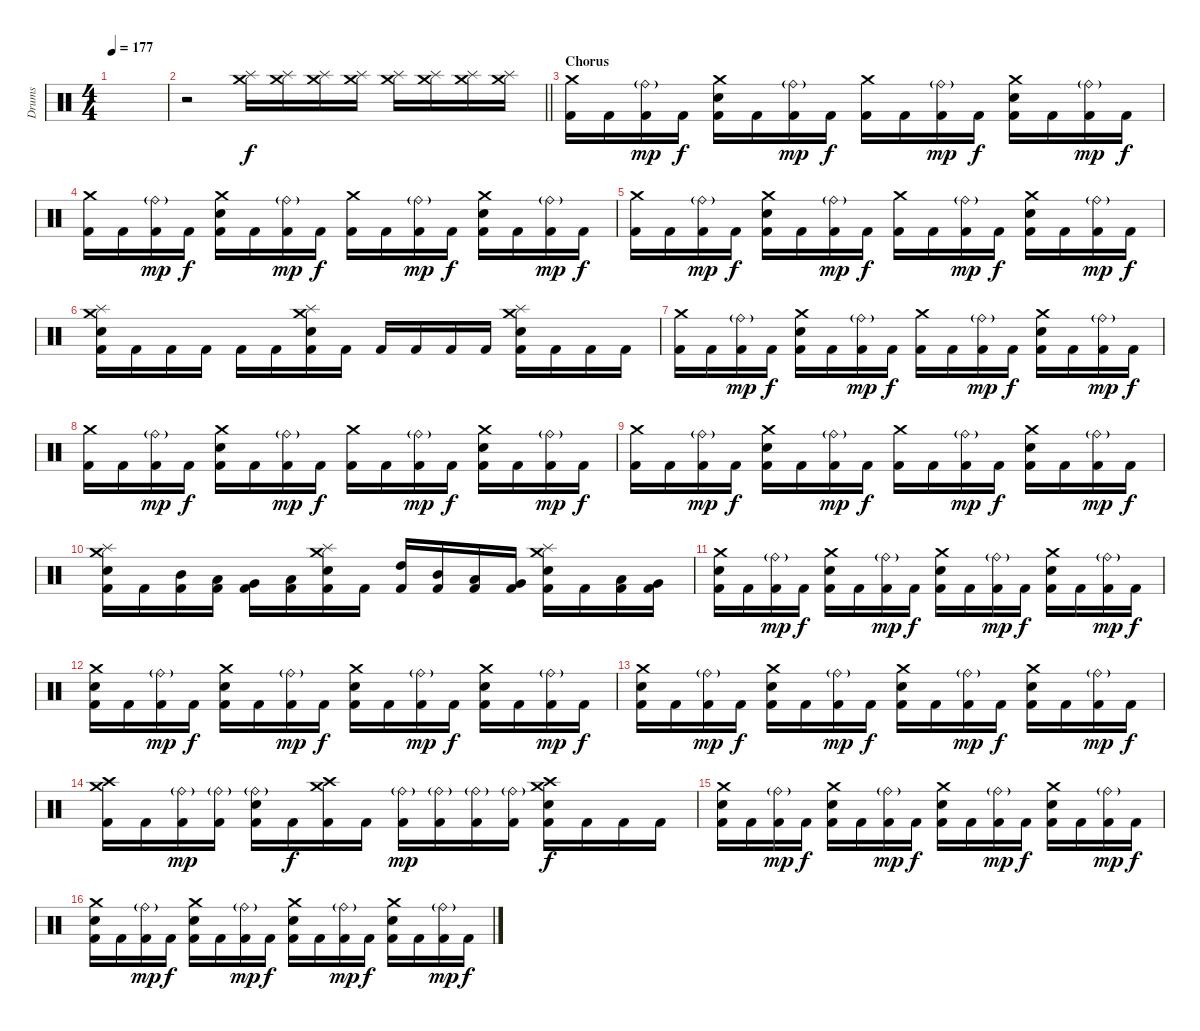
\track ("Drums" "Drums") {instrument percussion}
\staff {score}
\articulation defaults
\ts (4 4)
\tempo 177
\clef neutral
\ks c
|
\barLineRight lightlight
r.2{volume 0} ("Splash (hit)" "Crash medium (hit)").16{volume 2} ("Splash (hit)" "Crash medium (hit)").16{volume 4} ("Splash (hit)" "Crash medium (hit)").16{volume 6} ("Splash (hit)" "Crash medium (hit)").16{volume 8} ("Splash (hit)" "Crash medium (hit)").16{volume 10} ("Splash (hit)" "Crash medium (hit)").16{volume 12} ("Splash (hit)" "Crash medium (hit)").16{volume 14} ("Splash (hit)" "Crash medium (hit)").16{volume 16} |
\section ("" "Chorus")
("Kick (hit) 2" "Crash medium (hit)").16 "Kick (hit) 2".16 ("Kick (hit) 2" "Ride (bell)"{g}).16{dy mp} "Kick (hit) 2".16{dy f} ("Kick (hit) 2" "Snare (hit) 2" "Crash medium (hit)").16 "Kick (hit) 2".16 ("Kick (hit) 2" "Ride (bell)"{g}).16{dy mp} "Kick (hit) 2".16{dy f} ("Kick (hit) 2" "Crash medium (hit)").16 "Kick (hit) 2".16 ("Kick (hit) 2" "Ride (bell)"{g}).16{dy mp} "Kick (hit) 2".16{dy f} ("Kick (hit) 2" "Snare (hit) 2" "Crash medium (hit)").16 "Kick (hit) 2".16 ("Kick (hit) 2" "Ride (bell)"{g}).16{dy mp} "Kick (hit) 2".16{dy f} |
("Kick (hit) 2" "Crash medium (hit)").16 "Kick (hit) 2".16 ("Kick (hit) 2" "Ride (bell)"{g}).16{dy mp} "Kick (hit) 2".16{dy f} ("Kick (hit) 2" "Snare (hit) 2" "Crash medium (hit)").16 "Kick (hit) 2".16 ("Kick (hit) 2" "Ride (bell)"{g}).16{dy mp} "Kick (hit) 2".16{dy f} ("Kick (hit) 2" "Crash medium (hit)").16 "Kick (hit) 2".16 ("Kick (hit) 2" "Ride (bell)"{g}).16{dy mp} "Kick (hit) 2".16{dy f} ("Kick (hit) 2" "Snare (hit) 2" "Crash medium (hit)").16 "Kick (hit) 2".16 ("Kick (hit) 2" "Ride (bell)"{g}).16{dy mp} "Kick (hit) 2".16{dy f} |
("Kick (hit) 2" "Crash medium (hit)").16 "Kick (hit) 2".16 ("Kick (hit) 2" "Ride (bell)"{g}).16{dy mp} "Kick (hit) 2".16{dy f} ("Kick (hit) 2" "Snare (hit) 2" "Crash medium (hit)").16 "Kick (hit) 2".16 ("Kick (hit) 2" "Ride (bell)"{g}).16{dy mp} "Kick (hit) 2".16{dy f} ("Kick (hit) 2" "Crash medium (hit)").16 "Kick (hit) 2".16 ("Kick (hit) 2" "Ride (bell)"{g}).16{dy mp} "Kick (hit) 2".16{dy f} ("Kick (hit) 2" "Snare (hit) 2" "Crash medium (hit)").16 "Kick (hit) 2".16 ("Kick (hit) 2" "Ride (bell)"{g}).16{dy mp} "Kick (hit) 2".16{dy f} |
("Kick (hit) 2" "Snare (hit) 2" "Splash (hit)" "Crash medium (hit)").16 "Kick (hit) 2".16 "Kick (hit) 2".16 "Kick (hit) 2".16 "Kick (hit) 2".16 "Kick (hit) 2".16 ("Kick (hit) 2" "Snare (hit) 2" "Splash (hit)" "Crash medium (hit)").16 "Kick (hit) 2".16 "Kick (hit) 2".16 "Kick (hit) 2".16 "Kick (hit) 2".16 "Kick (hit) 2".16 ("Kick (hit) 2" "Snare (hit) 2" "Splash (hit)" "Crash medium (hit)").16 "Kick (hit) 2".16 "Kick (hit) 2".16 "Kick (hit) 2".16 |
("Kick (hit) 2" "Crash medium (hit)").16 "Kick (hit) 2".16 ("Kick (hit) 2" "Ride (bell)"{g}).16{dy mp} "Kick (hit) 2".16{dy f} ("Kick (hit) 2" "Snare (hit) 2" "Crash medium (hit)").16 "Kick (hit) 2".16 ("Kick (hit) 2" "Ride (bell)"{g}).16{dy mp} "Kick (hit) 2".16{dy f} ("Kick (hit) 2" "Crash medium (hit)").16 "Kick (hit) 2".16 ("Kick (hit) 2" "Ride (bell)"{g}).16{dy mp} "Kick (hit) 2".16{dy f} ("Kick (hit) 2" "Snare (hit) 2" "Crash medium (hit)").16 "Kick (hit) 2".16 ("Kick (hit) 2" "Ride (bell)"{g}).16{dy mp} "Kick (hit) 2".16{dy f} |
("Kick (hit) 2" "Crash medium (hit)").16 "Kick (hit) 2".16 ("Kick (hit) 2" "Ride (bell)"{g}).16{dy mp} "Kick (hit) 2".16{dy f} ("Kick (hit) 2" "Snare (hit) 2" "Crash medium (hit)").16 "Kick (hit) 2".16 ("Kick (hit) 2" "Ride (bell)"{g}).16{dy mp} "Kick (hit) 2".16{dy f} ("Kick (hit) 2" "Crash medium (hit)").16 "Kick (hit) 2".16 ("Kick (hit) 2" "Ride (bell)"{g}).16{dy mp} "Kick (hit) 2".16{dy f} ("Kick (hit) 2" "Snare (hit) 2" "Crash medium (hit)").16 "Kick (hit) 2".16 ("Kick (hit) 2" "Ride (bell)"{g}).16{dy mp} "Kick (hit) 2".16{dy f} |
("Kick (hit) 2" "Crash medium (hit)").16 "Kick (hit) 2".16 ("Kick (hit) 2" "Ride (bell)"{g}).16{dy mp} "Kick (hit) 2".16{dy f} ("Kick (hit) 2" "Snare (hit) 2" "Crash medium (hit)").16 "Kick (hit) 2".16 ("Kick (hit) 2" "Ride (bell)"{g}).16{dy mp} "Kick (hit) 2".16{dy f} ("Kick (hit) 2" "Crash medium (hit)").16 "Kick (hit) 2".16 ("Kick (hit) 2" "Ride (bell)"{g}).16{dy mp} "Kick (hit) 2".16{dy f} ("Kick (hit) 2" "Snare (hit) 2" "Crash medium (hit)").16 "Kick (hit) 2".16 ("Kick (hit) 2" "Ride (bell)"{g}).16{dy mp} "Kick (hit) 2".16{dy f} |
("Kick (hit) 2" "Snare (hit) 2" "Splash (hit)" "Crash medium (hit)").16 "Kick (hit) 2".16 ("Kick (hit) 2" "Mid Tom (hit)").16 ("Kick (hit) 2" "Low Tom (hit)").16 ("Kick (hit) 2" "Very Low Tom (hit)").16 ("Kick (hit) 2" "Low Floor Tom (hit)").16 ("Kick (hit) 2" "Snare (hit) 2" "Splash (hit)" "Crash medium (hit)").16 "Kick (hit) 2".16 ("Kick (hit) 2" "High Tom (hit)").16 ("Kick (hit) 2" "Mid Tom (hit)").16 ("Kick (hit) 2" "Low Tom (hit)").16 ("Kick (hit) 2" "Very Low Tom (hit)").16 ("Kick (hit) 2" "Snare (hit) 2" "Splash (hit)" "Crash medium (hit)").16 "Kick (hit) 2".16 ("Kick (hit) 2" "Low Tom (hit)").16 ("Kick (hit) 2" "Very Low Tom (hit)").16 |
("Kick (hit) 2" "Snare (hit) 2" "Crash medium (hit)").16 "Kick (hit) 2".16 ("Kick (hit) 2" "Ride (bell)"{g}).16{dy mp} "Kick (hit) 2".16{dy f} ("Kick (hit) 2" "Snare (hit) 2" "Crash medium (hit)").16 "Kick (hit) 2".16 ("Kick (hit) 2" "Ride (bell)"{g}).16{dy mp} "Kick (hit) 2".16{dy f} ("Kick (hit) 2" "Snare (hit) 2" "Crash medium (hit)").16 "Kick (hit) 2".16 ("Kick (hit) 2" "Ride (bell)"{g}).16{dy mp} "Kick (hit) 2".16{dy f} ("Kick (hit) 2" "Snare (hit) 2" "Crash medium (hit)").16 "Kick (hit) 2".16 ("Kick (hit) 2" "Ride (bell)"{g}).16{dy mp} "Kick (hit) 2".16{dy f} |
("Kick (hit) 2" "Snare (hit) 2" "Crash medium (hit)").16 "Kick (hit) 2".16 ("Kick (hit) 2" "Ride (bell)"{g}).16{dy mp} "Kick (hit) 2".16{dy f} ("Kick (hit) 2" "Snare (hit) 2" "Crash medium (hit)").16 "Kick (hit) 2".16 ("Kick (hit) 2" "Ride (bell)"{g}).16{dy mp} "Kick (hit) 2".16{dy f} ("Kick (hit) 2" "Snare (hit) 2" "Crash medium (hit)").16 "Kick (hit) 2".16 ("Kick (hit) 2" "Ride (bell)"{g}).16{dy mp} "Kick (hit) 2".16{dy f} ("Kick (hit) 2" "Snare (hit) 2" "Crash medium (hit)").16 "Kick (hit) 2".16 ("Kick (hit) 2" "Ride (bell)"{g}).16{dy mp} "Kick (hit) 2".16{dy f} |
("Kick (hit) 2" "Snare (hit) 2" "Crash medium (hit)").16 "Kick (hit) 2".16 ("Kick (hit) 2" "Ride (bell)"{g}).16{dy mp} "Kick (hit) 2".16{dy f} ("Kick (hit) 2" "Snare (hit) 2" "Crash medium (hit)").16 "Kick (hit) 2".16 ("Kick (hit) 2" "Ride (bell)"{g}).16{dy mp} "Kick (hit) 2".16{dy f} ("Kick (hit) 2" "Snare (hit) 2" "Crash medium (hit)").16 "Kick (hit) 2".16 ("Kick (hit) 2" "Ride (bell)"{g}).16{dy mp} "Kick (hit) 2".16{dy f} ("Kick (hit) 2" "Snare (hit) 2" "Crash medium (hit)").16 "Kick (hit) 2".16 ("Kick (hit) 2" "Ride (bell)"{g}).16{dy mp} "Kick (hit) 2".16{dy f} |
("Kick (hit) 2" "Crash high (hit)" "Crash medium (hit)").16 "Kick (hit) 2".16 ("Kick (hit) 2" "Ride (bell)"{g}).16{dy mp} ("Kick (hit) 2" "Ride (bell)"{g}).16 ("Kick (hit) 2" "Snare (hit) 2" "Ride (bell)"{g}).16 "Kick (hit) 2".16{dy f} ("Kick (hit) 2" "Crash high (hit)" "Crash medium (hit)").16 "Kick (hit) 2".16 ("Kick (hit) 2" "Ride (bell)"{g}).16{dy mp} ("Kick (hit) 2" "Ride (bell)"{g}).16 ("Kick (hit) 2" "Ride (bell)"{g}).16 ("Kick (hit) 2" "Ride (bell)"{g}).16 ("Kick (hit) 2" "Snare (hit) 2" "Crash high (hit)" "Crash medium (hit)").16{dy f} "Kick (hit) 2".16 "Kick (hit) 2".16 "Kick (hit) 2".16 |
("Kick (hit) 2" "Snare (hit) 2" "Crash medium (hit)").16 "Kick (hit) 2".16 ("Kick (hit) 2" "Ride (bell)"{g}).16{dy mp} "Kick (hit) 2".16{dy f} ("Kick (hit) 2" "Snare (hit) 2" "Crash medium (hit)").16 "Kick (hit) 2".16 ("Kick (hit) 2" "Ride (bell)"{g}).16{dy mp} "Kick (hit) 2".16{dy f} ("Kick (hit) 2" "Snare (hit) 2" "Crash medium (hit)").16 "Kick (hit) 2".16 ("Kick (hit) 2" "Ride (bell)"{g}).16{dy mp} "Kick (hit) 2".16{dy f} ("Kick (hit) 2" "Snare (hit) 2" "Crash medium (hit)").16 "Kick (hit) 2".16 ("Kick (hit) 2" "Ride (bell)"{g}).16{dy mp} "Kick (hit) 2".16{dy f} |
("Kick (hit) 2" "Snare (hit) 2" "Crash medium (hit)").16 "Kick (hit) 2".16 ("Kick (hit) 2" "Ride (bell)"{g}).16{dy mp} "Kick (hit) 2".16{dy f} ("Kick (hit) 2" "Snare (hit) 2" "Crash medium (hit)").16 "Kick (hit) 2".16 ("Kick (hit) 2" "Ride (bell)"{g}).16{dy mp} "Kick (hit) 2".16{dy f} ("Kick (hit) 2" "Snare (hit) 2" "Crash medium (hit)").16 "Kick (hit) 2".16 ("Kick (hit) 2" "Ride (bell)"{g}).16{dy mp} "Kick (hit) 2".16{dy f} ("Kick (hit) 2" "Snare (hit) 2" "Crash medium (hit)").16 "Kick (hit) 2".16 ("Kick (hit) 2" "Ride (bell)"{g}).16{dy mp} "Kick (hit) 2".16{dy f}
